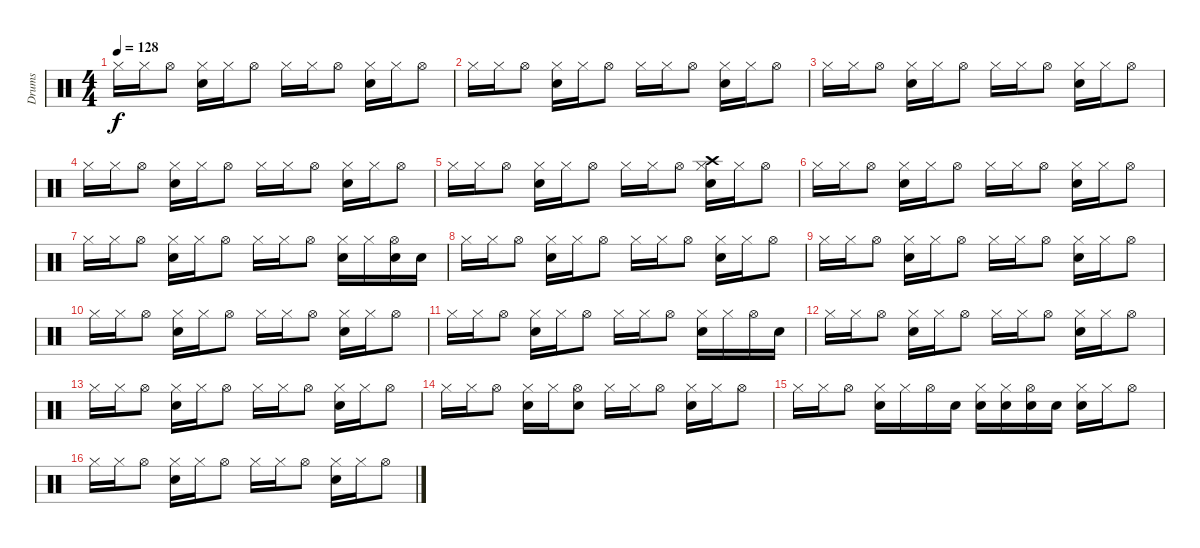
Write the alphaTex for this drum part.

\track ("Drums" "Drums") {instrument percussion}
\staff {score}
\articulation defaults
\ts (4 4)
\tempo 128
\clef neutral
\ks c "Hi-Hat (closed)".16{dy f} "Hi-Hat (closed)".16 "Hi-Hat (open)".8
("Hi-Hat (closed)" "Electric Snare (hit)").16 "Hi-Hat (closed)".16 "Hi-Hat (open)".8 "Hi-Hat (closed)".16 "Hi-Hat (closed)".16 "Hi-Hat (open)".8 ("Hi-Hat (closed)" "Electric Snare (hit)").16 "Hi-Hat (closed)".16 "Hi-Hat (open)".8 |
"Hi-Hat (closed)".16 "Hi-Hat (closed)".16 "Hi-Hat (open)".8 ("Hi-Hat (closed)" "Electric Snare (hit)").16 "Hi-Hat (closed)".16 "Hi-Hat (open)".8 "Hi-Hat (closed)".16 "Hi-Hat (closed)".16 "Hi-Hat (open)".8 ("Hi-Hat (closed)" "Electric Snare (hit)").16 "Hi-Hat (closed)".16 "Hi-Hat (open)".8 |
"Hi-Hat (closed)".16 "Hi-Hat (closed)".16 "Hi-Hat (open)".8 ("Hi-Hat (closed)" "Electric Snare (hit)").16 "Hi-Hat (closed)".16 "Hi-Hat (open)".8 "Hi-Hat (closed)".16 "Hi-Hat (closed)".16 "Hi-Hat (open)".8 ("Hi-Hat (closed)" "Electric Snare (hit)").16 "Hi-Hat (closed)".16 "Hi-Hat (open)".8 |
"Hi-Hat (closed)".16 "Hi-Hat (closed)".16 "Hi-Hat (open)".8 ("Hi-Hat (closed)" "Electric Snare (hit)").16 "Hi-Hat (closed)".16 "Hi-Hat (open)".8 "Hi-Hat (closed)".16 "Hi-Hat (closed)".16 "Hi-Hat (open)".8 ("Hi-Hat (closed)" "Electric Snare (hit)").16 "Hi-Hat (closed)".16 "Hi-Hat (open)".8 |
"Hi-Hat (closed)".16 "Hi-Hat (closed)".16 "Hi-Hat (open)".8 ("Hi-Hat (closed)" "Electric Snare (hit)").16 "Hi-Hat (closed)".16 "Hi-Hat (open)".8 "Hi-Hat (closed)".16 "Hi-Hat (closed)".16 "Hi-Hat (open)".8 ("Crash high (hit)" "Hi-Hat (closed)" "Electric Snare (hit)").16 "Hi-Hat (closed)".16 "Hi-Hat (open)".8 |
"Hi-Hat (closed)".16 "Hi-Hat (closed)".16 "Hi-Hat (open)".8 ("Hi-Hat (closed)" "Electric Snare (hit)").16 "Hi-Hat (closed)".16 "Hi-Hat (open)".8 "Hi-Hat (closed)".16 "Hi-Hat (closed)".16 "Hi-Hat (open)".8 ("Hi-Hat (closed)" "Electric Snare (hit)").16 "Hi-Hat (closed)".16 "Hi-Hat (open)".8 |
"Hi-Hat (closed)".16 "Hi-Hat (closed)".16 "Hi-Hat (open)".8 ("Hi-Hat (closed)" "Electric Snare (hit)").16 "Hi-Hat (closed)".16 "Hi-Hat (open)".8 "Hi-Hat (closed)".16 "Hi-Hat (closed)".16 "Hi-Hat (open)".8 ("Hi-Hat (closed)" "Electric Snare (hit)").16 "Hi-Hat (closed)".16 ("Hi-Hat (open)" "Electric Snare (hit)").16 "Electric Snare (hit)".16 |
"Hi-Hat (closed)".16 "Hi-Hat (closed)".16 "Hi-Hat (open)".8 ("Hi-Hat (closed)" "Electric Snare (hit)").16 "Hi-Hat (closed)".16 "Hi-Hat (open)".8 "Hi-Hat (closed)".16 "Hi-Hat (closed)".16 "Hi-Hat (open)".8 ("Hi-Hat (closed)" "Electric Snare (hit)").16 "Hi-Hat (closed)".16 "Hi-Hat (open)".8 |
"Hi-Hat (closed)".16 "Hi-Hat (closed)".16 "Hi-Hat (open)".8 ("Hi-Hat (closed)" "Electric Snare (hit)").16 "Hi-Hat (closed)".16 "Hi-Hat (open)".8 "Hi-Hat (closed)".16 "Hi-Hat (closed)".16 "Hi-Hat (open)".8 ("Hi-Hat (closed)" "Electric Snare (hit)").16 "Hi-Hat (closed)".16 "Hi-Hat (open)".8 |
"Hi-Hat (closed)".16 "Hi-Hat (closed)".16 "Hi-Hat (open)".8 ("Hi-Hat (closed)" "Electric Snare (hit)").16 "Hi-Hat (closed)".16 "Hi-Hat (open)".8 "Hi-Hat (closed)".16 "Hi-Hat (closed)".16 "Hi-Hat (open)".8 ("Hi-Hat (closed)" "Electric Snare (hit)").16 "Hi-Hat (closed)".16 "Hi-Hat (open)".8 |
"Hi-Hat (closed)".16 "Hi-Hat (closed)".16 "Hi-Hat (open)".8 ("Hi-Hat (closed)" "Electric Snare (hit)").16 "Hi-Hat (closed)".16 "Hi-Hat (open)".8 "Hi-Hat (closed)".16 "Hi-Hat (closed)".16 "Hi-Hat (open)".8 ("Hi-Hat (closed)" "Electric Snare (hit)").16 "Hi-Hat (closed)".16 "Hi-Hat (open)".16 "Electric Snare (hit)".16 |
"Hi-Hat (closed)".16 "Hi-Hat (closed)".16 "Hi-Hat (open)".8 ("Hi-Hat (closed)" "Electric Snare (hit)").16 "Hi-Hat (closed)".16 "Hi-Hat (open)".8 "Hi-Hat (closed)".16 "Hi-Hat (closed)".16 "Hi-Hat (open)".8 ("Hi-Hat (closed)" "Electric Snare (hit)").16 "Hi-Hat (closed)".16 "Hi-Hat (open)".8 |
"Hi-Hat (closed)".16 "Hi-Hat (closed)".16 "Hi-Hat (open)".8 ("Hi-Hat (closed)" "Electric Snare (hit)").16 "Hi-Hat (closed)".16 "Hi-Hat (open)".8 "Hi-Hat (closed)".16 "Hi-Hat (closed)".16 "Hi-Hat (open)".8 ("Hi-Hat (closed)" "Electric Snare (hit)").16 "Hi-Hat (closed)".16 "Hi-Hat (open)".8 |
"Hi-Hat (closed)".16 "Hi-Hat (closed)".16 "Hi-Hat (open)".8 ("Hi-Hat (closed)" "Electric Snare (hit)").16 "Hi-Hat (closed)".16 ("Hi-Hat (open)" "Electric Snare (hit)").8 "Hi-Hat (closed)".16 "Hi-Hat (closed)".16 "Hi-Hat (open)".8 ("Hi-Hat (closed)" "Electric Snare (hit)").16 "Hi-Hat (closed)".16 "Hi-Hat (open)".8 |
"Hi-Hat (closed)".16 "Hi-Hat (closed)".16 "Hi-Hat (open)".8 ("Hi-Hat (closed)" "Electric Snare (hit)").16 "Hi-Hat (closed)".16 "Hi-Hat (open)".16 "Electric Snare (hit)".16 ("Hi-Hat (closed)" "Electric Snare (hit)").16 ("Hi-Hat (closed)" "Electric Snare (hit)").16 ("Hi-Hat (open)" "Electric Snare (hit)").16 "Electric Snare (hit)".16 ("Hi-Hat (closed)" "Electric Snare (hit)").16 "Hi-Hat (closed)".16 "Hi-Hat (open)".8 |
"Hi-Hat (closed)".16 "Hi-Hat (closed)".16 "Hi-Hat (open)".8 ("Hi-Hat (closed)" "Electric Snare (hit)").16 "Hi-Hat (closed)".16 "Hi-Hat (open)".8 "Hi-Hat (closed)".16 "Hi-Hat (closed)".16 "Hi-Hat (open)".8 ("Hi-Hat (closed)" "Electric Snare (hit)").16 "Hi-Hat (closed)".16 "Hi-Hat (open)".8
